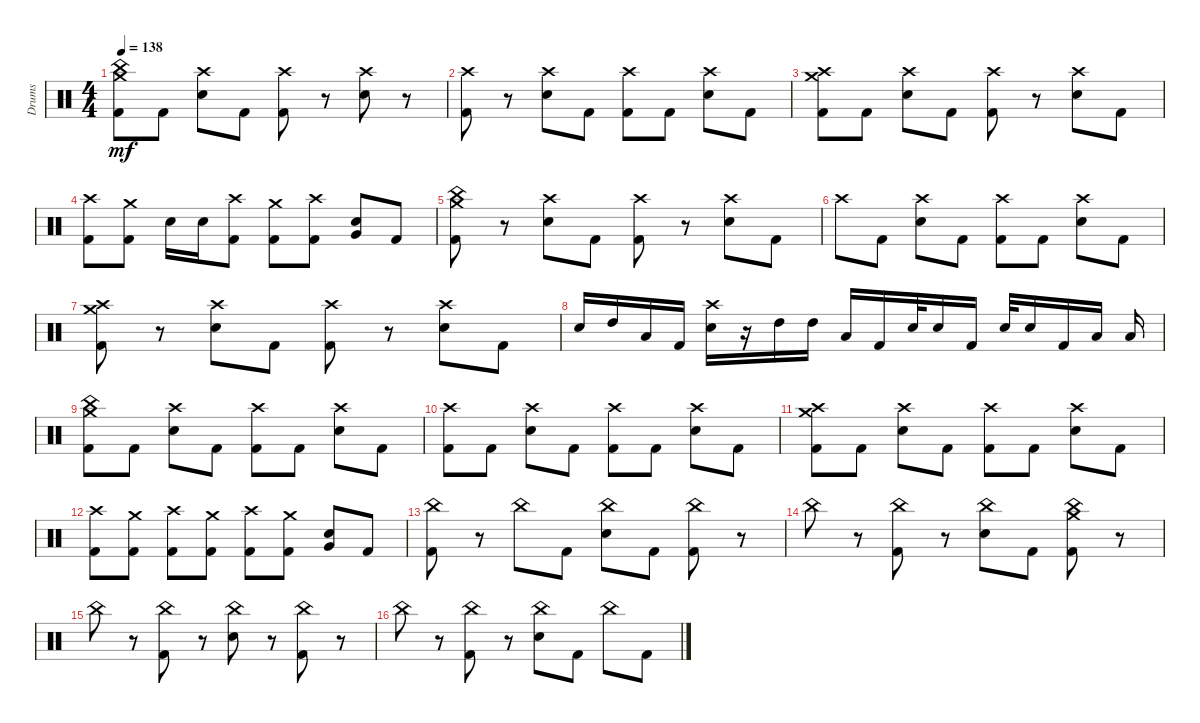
\track ("Drums" "Drums") {instrument percussion}
\staff {score}
\articulation defaults
\ts (4 4)
\tempo 138
\clef neutral
\ks c
("Crash medium (hit)" "China (hit)" "Kick (hit) 2").8{dy mf} "Kick (hit) 2".8 ("Crash high (hit)" "Snare (hit) 2").8 "Kick (hit) 2".8 ("Crash high (hit)" "Kick (hit) 2").8 r.8 ("Crash high (hit)" "Snare (hit) 2").8 r.8 |
("Crash high (hit)" "Kick (hit) 2").8 r.8 ("Crash high (hit)" "Snare (hit) 2").8 "Kick (hit) 2".8 ("Crash high (hit)" "Kick (hit) 2").8 "Kick (hit) 2".8 ("Crash high (hit)" "Snare (hit) 2").8 "Kick (hit) 2".8 |
("Crash high (hit)" "Crash medium (hit)" "Kick (hit) 2").8 "Kick (hit) 2".8 ("Crash high (hit)" "Snare (hit) 2").8 "Kick (hit) 2".8 ("Crash high (hit)" "Kick (hit) 2").8 r.8 ("Crash high (hit)" "Snare (hit) 2").8 "Kick (hit) 2".8 |
("Crash high (hit)" "Kick (hit) 2").8 ("Crash medium (hit)" "Kick (hit) 2").8 "Snare (hit) 2".16 "Snare (hit) 2".16 ("Crash high (hit)" "Kick (hit) 2").8 ("Crash medium (hit)" "Kick (hit) 2").8 ("Crash high (hit)" "Kick (hit) 2").8 ("Snare (hit) 2" "Very Low Tom (hit)").8 "Kick (hit) 2".8 |
("Crash medium (hit)" "China (hit)" "Kick (hit) 2").8 r.8 ("Crash high (hit)" "Snare (hit) 2").8 "Kick (hit) 2".8 ("Crash high (hit)" "Kick (hit) 2").8 r.8 ("Crash high (hit)" "Snare (hit) 2").8 "Kick (hit) 2".8 |
"Crash high (hit)".8 "Kick (hit) 2".8 ("Crash high (hit)" "Snare (hit) 2").8 "Kick (hit) 2".8 ("Crash high (hit)" "Kick (hit) 2").8 "Kick (hit) 2".8 ("Crash high (hit)" "Snare (hit) 2").8 "Kick (hit) 2".8 |
("Crash high (hit)" "Crash medium (hit)" "Kick (hit) 2").8 r.8 ("Crash high (hit)" "Snare (hit) 2").8 "Kick (hit) 2".8 ("Crash high (hit)" "Kick (hit) 2").8 r.8 ("Crash high (hit)" "Snare (hit) 2").8 "Kick (hit) 2".8 |
"Snare (hit) 2".16 "High Tom (hit)".16 "Low Tom (hit)".16 "Kick (hit) 2".16 ("Crash high (hit)" "Snare (hit) 2").16 r.16 "High Tom (hit)".16 "High Tom (hit)".16 "Low Tom (hit)".16 "Kick (hit) 2".16 "Snare (hit) 2".32 "Snare (hit) 2".16 "Kick (hit) 2".16 "Snare (hit) 2".32 "Snare (hit) 2".16 "Kick (hit) 2".16 "Low Tom (hit)".16 "Low Tom (hit)".16 |
("Crash medium (hit)" "China (hit)" "Kick (hit) 2").8 "Kick (hit) 2".8 ("Crash high (hit)" "Snare (hit) 2").8 "Kick (hit) 2".8 ("Crash high (hit)" "Kick (hit) 2").8 "Kick (hit) 2".8 ("Crash high (hit)" "Snare (hit) 2").8 "Kick (hit) 2".8 |
("Crash high (hit)" "Kick (hit) 2").8 "Kick (hit) 2".8 ("Crash high (hit)" "Snare (hit) 2").8 "Kick (hit) 2".8 ("Crash high (hit)" "Kick (hit) 2").8 "Kick (hit) 2".8 ("Crash high (hit)" "Snare (hit) 2").8 "Kick (hit) 2".8 |
("Crash high (hit)" "Crash medium (hit)" "Kick (hit) 2").8 "Kick (hit) 2".8 ("Crash high (hit)" "Snare (hit) 2").8 "Kick (hit) 2".8 ("Crash high (hit)" "Kick (hit) 2").8 "Kick (hit) 2".8 ("Crash high (hit)" "Snare (hit) 2").8 "Kick (hit) 2".8 |
("Crash high (hit)" "Kick (hit) 2").8 ("Crash medium (hit)" "Kick (hit) 2").8 ("Crash high (hit)" "Kick (hit) 2").8 ("Crash medium (hit)" "Kick (hit) 2").8 ("Crash high (hit)" "Kick (hit) 2").8 ("Crash medium (hit)" "Kick (hit) 2").8 ("Snare (hit) 2" "Very Low Tom (hit)").8 "Kick (hit) 2".8 |
("China (hit)" "Kick (hit) 2").8 r.8 "China (hit)".8 "Kick (hit) 2".8 ("China (hit)" "Snare (hit) 2").8 "Kick (hit) 2".8 ("China (hit)" "Kick (hit) 2").8 r.8 |
"China (hit)".8 r.8 ("China (hit)" "Kick (hit) 2").8 r.8 ("China (hit)" "Snare (hit) 2").8 "Kick (hit) 2".8 ("China (hit)" "Crash medium (hit)" "Kick (hit) 2").8 r.8 |
"China (hit)".8 r.8 ("China (hit)" "Kick (hit) 2").8 r.8 ("China (hit)" "Snare (hit) 2").8 r.8 ("China (hit)" "Kick (hit) 2").8 r.8 |
"China (hit)".8 r.8 ("China (hit)" "Kick (hit) 2").8 r.8 ("China (hit)" "Snare (hit) 2").8 "Kick (hit) 2".8 "China (hit)".8 "Kick (hit) 2".8
